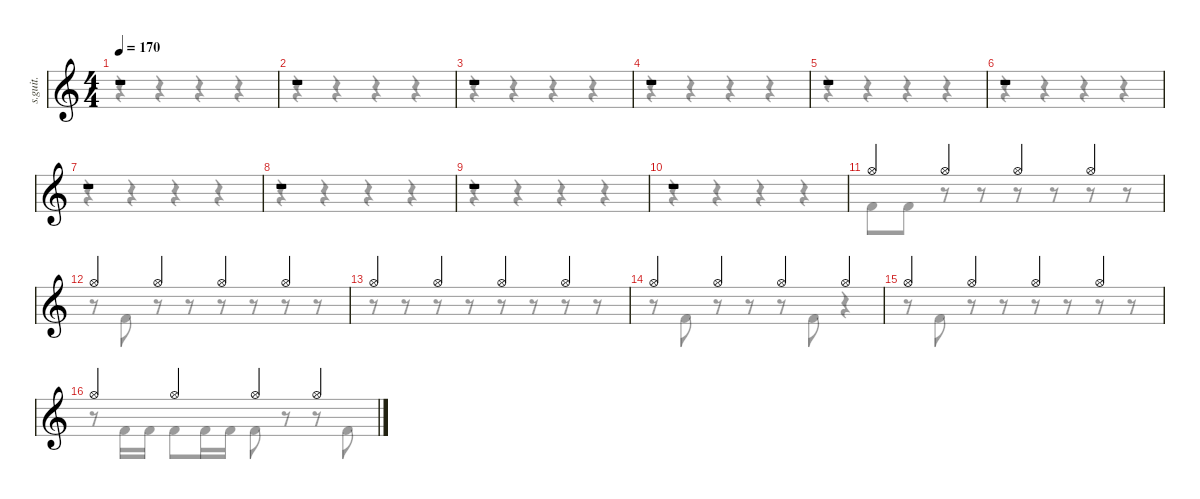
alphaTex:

\defaultSystemsLayout 4
\hideDynamics
\bracketExtendMode nobrackets
\track ("Drumkit" "s.guit.") {instrument percussion}
\staff {score}
\articulation defaults
\voice
\ts (4 4)
\beaming (8 2 2 2 2)
\tempo 170
\clef g2
\ks c
r.1{dy f} |
r.1 |
r.1 |
r.1 |
r.1 |
r.1 |
r.1 |
r.1 |
r.1 |
r.1 |
"Hi-Hat (open)".4 "Hi-Hat (open)".4 "Hi-Hat (open)".4 "Hi-Hat (open)".4 |
"Hi-Hat (open)".4 "Hi-Hat (open)".4 "Hi-Hat (open)".4 "Hi-Hat (open)".4 |
"Hi-Hat (open)".4 "Hi-Hat (open)".4 "Hi-Hat (open)".4 "Hi-Hat (open)".4 |
"Hi-Hat (open)".4 "Hi-Hat (open)".4 "Hi-Hat (open)".4 "Hi-Hat (open)".4 |
"Hi-Hat (open)".4 "Hi-Hat (open)".4 "Hi-Hat (open)".4 "Hi-Hat (open)".4 |
"Hi-Hat (open)".4 "Hi-Hat (open)".4 "Hi-Hat (open)".4 "Hi-Hat (open)".4
\voice
\clef g2
\ottava regular
\simile none
\ks c
r.4{dy f} r.4 r.4 r.4 |
r.4 r.4 r.4 r.4 |
r.4 r.4 r.4 r.4 |
r.4 r.4 r.4 r.4 |
r.4 r.4 r.4 r.4 |
r.4 r.4 r.4 r.4 |
r.4 r.4 r.4 r.4 |
r.4 r.4 r.4 r.4 |
r.4 r.4 r.4 r.4 |
r.4 r.4 r.4 r.4 |
"Kick (hit) 2".8 "Kick (hit) 2".8 r.8 r.8 r.8 r.8 r.8 r.8 |
r.8 "Kick (hit) 2".8 r.8 r.8 r.8 r.8 r.8 r.8 |
r.8 r.8 r.8 r.8 r.8 r.8 r.8 r.8 |
r.8 "Kick (hit) 2".8 r.8 r.8 r.8 "Kick (hit) 2".8 r.4 |
r.8 "Kick (hit) 2".8 r.8 r.8 r.8 r.8 r.8 r.8 |
r.8 "Kick (hit) 2".16 "Kick (hit) 2".16 "Kick (hit) 2".8 "Kick (hit) 2".16 "Kick (hit) 2".16 "Kick (hit) 2".8 r.8 r.8 "Kick (hit) 2".8
